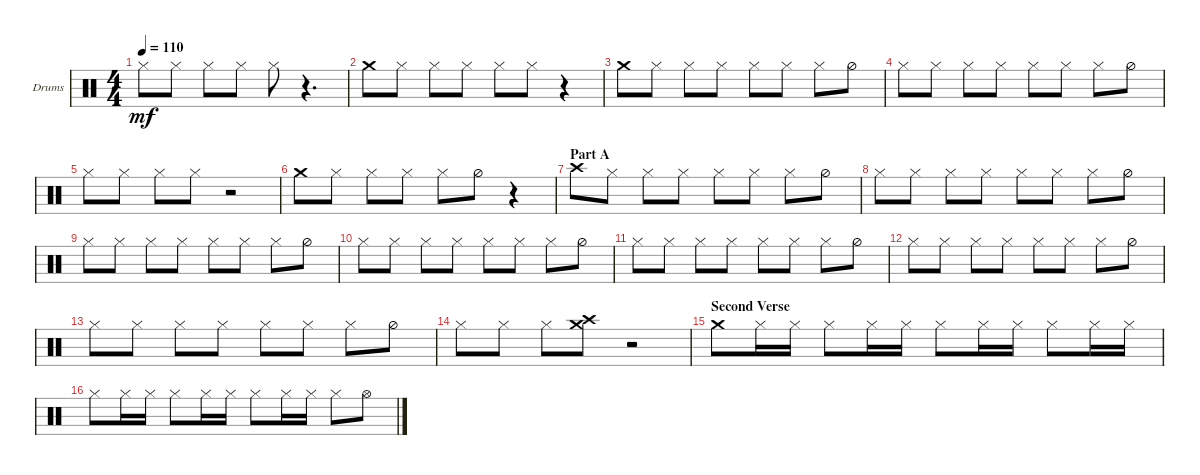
\defaultSystemsLayout 4
\bracketExtendMode groupsimilarinstruments
\firstSystemTrackNameOrientation horizontal
\otherSystemsTrackNameOrientation horizontal
\track ("Drumkit" "Drums") {instrument percussion}
\staff {score}
\articulation defaults
\ts (4 4)
\tempo 110
\clef neutral
\ks c "Hi-Hat (closed)".8{dy mf} "Hi-Hat (closed)".8 "Hi-Hat (closed)".8 "Hi-Hat (closed)".8 "Hi-Hat (closed)".8
r.4{d} |
"Crash medium (hit)".8 "Hi-Hat (closed)".8 "Hi-Hat (closed)".8 "Hi-Hat (closed)".8 "Hi-Hat (closed)".8 "Hi-Hat (closed)".8 r.4 |
"Crash medium (hit)".8 "Hi-Hat (closed)".8 "Hi-Hat (closed)".8 "Hi-Hat (closed)".8 "Hi-Hat (closed)".8 "Hi-Hat (closed)".8 "Hi-Hat (closed)".8 "Hi-Hat (half)".8 |
"Hi-Hat (closed)".8 "Hi-Hat (closed)".8 "Hi-Hat (closed)".8 "Hi-Hat (closed)".8 "Hi-Hat (closed)".8 "Hi-Hat (closed)".8 "Hi-Hat (closed)".8 "Hi-Hat (half)".8 |
"Hi-Hat (closed)".8 "Hi-Hat (closed)".8 "Hi-Hat (closed)".8 "Hi-Hat (closed)".8 r.2 |
"Crash medium (hit)".8 "Hi-Hat (closed)".8 "Hi-Hat (closed)".8 "Hi-Hat (closed)".8 "Hi-Hat (closed)".8 "Hi-Hat (half)".8 r.4 |
\section ("" "Part A")
"Crash high (hit)".8 "Hi-Hat (closed)".8 "Hi-Hat (closed)".8 "Hi-Hat (closed)".8 "Hi-Hat (closed)".8 "Hi-Hat (closed)".8 "Hi-Hat (closed)".8 "Hi-Hat (half)".8 |
"Hi-Hat (closed)".8 "Hi-Hat (closed)".8 "Hi-Hat (closed)".8 "Hi-Hat (closed)".8 "Hi-Hat (closed)".8 "Hi-Hat (closed)".8 "Hi-Hat (closed)".8 "Hi-Hat (half)".8 |
"Hi-Hat (closed)".8 "Hi-Hat (closed)".8 "Hi-Hat (closed)".8 "Hi-Hat (closed)".8 "Hi-Hat (closed)".8 "Hi-Hat (closed)".8 "Hi-Hat (closed)".8 "Hi-Hat (half)".8 |
"Hi-Hat (closed)".8 "Hi-Hat (closed)".8 "Hi-Hat (closed)".8 "Hi-Hat (closed)".8 "Hi-Hat (closed)".8 "Hi-Hat (closed)".8 "Hi-Hat (closed)".8 "Hi-Hat (half)".8 |
"Hi-Hat (closed)".8 "Hi-Hat (closed)".8 "Hi-Hat (closed)".8 "Hi-Hat (closed)".8 "Hi-Hat (closed)".8 "Hi-Hat (closed)".8 "Hi-Hat (closed)".8 "Hi-Hat (half)".8 |
"Hi-Hat (closed)".8 "Hi-Hat (closed)".8 "Hi-Hat (closed)".8 "Hi-Hat (closed)".8 "Hi-Hat (closed)".8 "Hi-Hat (closed)".8 "Hi-Hat (closed)".8 "Hi-Hat (half)".8 |
"Hi-Hat (closed)".8 "Hi-Hat (closed)".8 "Hi-Hat (closed)".8 "Hi-Hat (closed)".8 "Hi-Hat (closed)".8 "Hi-Hat (closed)".8 "Hi-Hat (closed)".8 "Hi-Hat (half)".8 |
"Hi-Hat (closed)".8 "Hi-Hat (closed)".8 "Hi-Hat (closed)".8 ("Crash high (hit)" "Crash medium (hit)").8 r.2 |
\section ("" "Second Verse")
"Crash medium (hit)".8 "Hi-Hat (closed)".16 "Hi-Hat (closed)".16 "Hi-Hat (closed)".8 "Hi-Hat (closed)".16 "Hi-Hat (closed)".16 "Hi-Hat (closed)".8 "Hi-Hat (closed)".16 "Hi-Hat (closed)".16 "Hi-Hat (closed)".8 "Hi-Hat (closed)".16 "Hi-Hat (closed)".16 |
"Hi-Hat (closed)".8 "Hi-Hat (closed)".16 "Hi-Hat (closed)".16 "Hi-Hat (closed)".8 "Hi-Hat (closed)".16 "Hi-Hat (closed)".16 "Hi-Hat (closed)".8 "Hi-Hat (closed)".16 "Hi-Hat (closed)".16 "Hi-Hat (closed)".8 "Hi-Hat (open)".8
